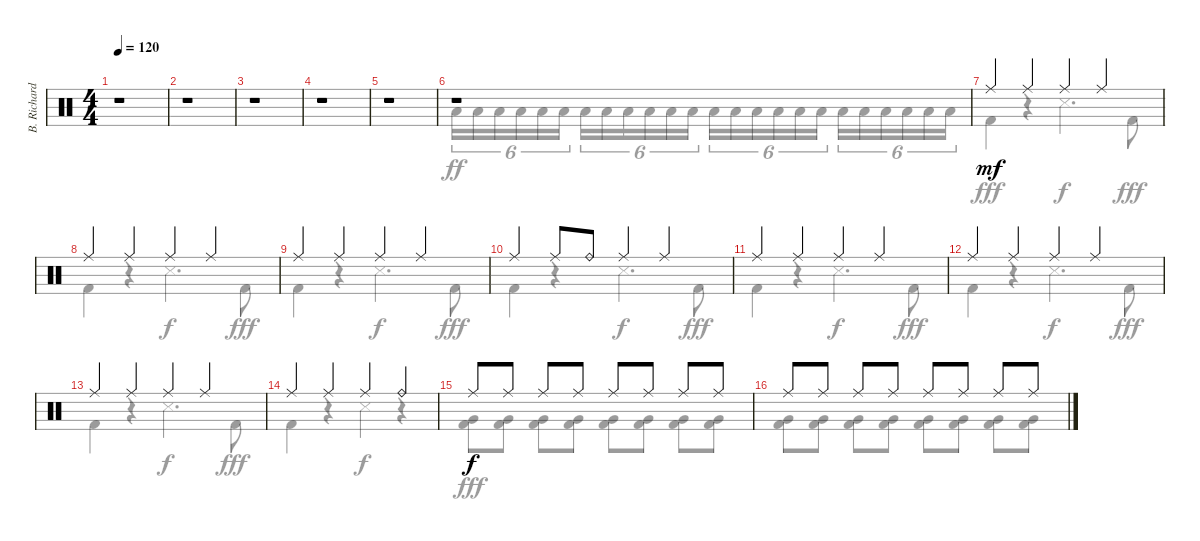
\track ("B. Richardson Drums" "B. Richard") {instrument percussion}
\staff {score}
\articulation defaults
\voice
\ts (4 4)
\tempo 120
\clef neutral
\ks c
r.1{dy mf} |
r.1 |
r.1 |
r.1 |
r.1 |
r.1{volume 16} |
"Ride (middle)".4 "Ride (middle)".4 "Ride (middle)".4 "Ride (middle)".4 |
"Ride (middle)".4 "Ride (middle)".4 "Ride (middle)".4 "Ride (middle)".4 |
"Ride (middle)".4 "Ride (middle)".4 "Ride (middle)".4 "Ride (middle)".4 |
"Ride (middle)".4 "Ride (middle)".8 "Ride (bell)".8 "Ride (middle)".4 "Ride (middle)".4 |
"Ride (middle)".4 "Ride (middle)".4 "Ride (middle)".4 "Ride (middle)".4 |
"Ride (middle)".4 "Ride (middle)".4 "Ride (middle)".4 "Ride (middle)".4 |
"Ride (middle)".4 "Ride (middle)".4 "Ride (middle)".4 "Ride (middle)".4 |
"Ride (middle)".4 "Ride (middle)".4 "Ride (middle)".4 "Ride (bell)".4{volume 5} |
"Ride (middle)".8{dy f volume 16} "Ride (middle)".8 "Ride (middle)".8 "Ride (middle)".8 "Ride (middle)".8 "Ride (middle)".8 "Ride (middle)".8 "Ride (middle)".8 |
"Ride (middle)".8 "Ride (middle)".8 "Ride (middle)".8 "Ride (middle)".8 "Ride (middle)".8 "Ride (middle)".8 "Ride (middle)".8 "Ride (middle)".8
\voice
\clef neutral
\ottava regular
\simile none
\ks c
r.1{dy fff} |
r.1 |
r.1 |
r.1 |
r.1 |
"Low Tom (hit)".16{tu (6 4) dy ff} "Low Tom (hit)".16{tu (6 4)} "Low Tom (hit)".16{tu (6 4)} "Low Tom (hit)".16{tu (6 4)} "Low Tom (hit)".16{tu (6 4)} "Low Tom (hit)".16{tu (6 4)} "Low Tom (hit)".16{tu (6 4)} "Low Tom (hit)".16{tu (6 4)} "Low Tom (hit)".16{tu (6 4)} "Low Tom (hit)".16{tu (6 4)} "Low Tom (hit)".16{tu (6 4)} "Low Tom (hit)".16{tu (6 4)} "Low Tom (hit)".16{tu (6 4)} "Low Tom (hit)".16{tu (6 4)} "Low Tom (hit)".16{tu (6 4)} "Low Tom (hit)".16{tu (6 4)} "Low Tom (hit)".16{tu (6 4)} "Low Tom (hit)".16{tu (6 4)} "Low Tom (hit)".16{tu (6 4)} "Low Tom (hit)".16{tu (6 4)} "Low Tom (hit)".16{tu (6 4)} "Low Tom (hit)".16{tu (6 4)} "Low Tom (hit)".16{tu (6 4)} "Low Tom (hit)".16{tu (6 4)} |
"Kick (hit) 2".4{dy fff} r.4 "Snare (side stick) 3".4{d dy f} "Kick (hit) 2".8{dy fff} |
"Kick (hit) 2".4 r.4 "Snare (side stick) 3".4{d dy f} "Kick (hit) 2".8{dy fff} |
"Kick (hit) 2".4 r.4 "Snare (side stick) 3".4{d dy f} "Kick (hit) 2".8{dy fff} |
"Kick (hit) 2".4 r.4 "Snare (side stick) 3".4{d dy f} "Kick (hit) 2".8{dy fff} |
"Kick (hit) 2".4 r.4 "Snare (side stick) 3".4{d dy f} "Kick (hit) 2".8{dy fff} |
"Kick (hit) 2".4 r.4 "Snare (side stick) 3".4{d dy f} "Kick (hit) 2".8{dy fff} |
"Kick (hit) 2".4 r.4 "Snare (side stick) 3".4{d dy f} "Kick (hit) 2".8{dy fff} |
"Kick (hit) 2".4 r.4 "Snare (side stick) 3".4{dy f} r.4 |
("Very Low Tom (hit)" "Kick (hit) 2").8{dy fff} ("Very Low Tom (hit)" "Kick (hit) 2").8 ("Very Low Tom (hit)" "Kick (hit) 2").8 ("Very Low Tom (hit)" "Kick (hit) 2").8 ("Very Low Tom (hit)" "Kick (hit) 2").8 ("Very Low Tom (hit)" "Kick (hit) 2").8 ("Very Low Tom (hit)" "Kick (hit) 2").8 ("Very Low Tom (hit)" "Kick (hit) 2").8 |
("Very Low Tom (hit)" "Kick (hit) 2").8 ("Very Low Tom (hit)" "Kick (hit) 2").8 ("Very Low Tom (hit)" "Kick (hit) 2").8 ("Very Low Tom (hit)" "Kick (hit) 2").8 ("Very Low Tom (hit)" "Kick (hit) 2").8 ("Very Low Tom (hit)" "Kick (hit) 2").8 ("Very Low Tom (hit)" "Kick (hit) 2").8 ("Very Low Tom (hit)" "Kick (hit) 2").8
